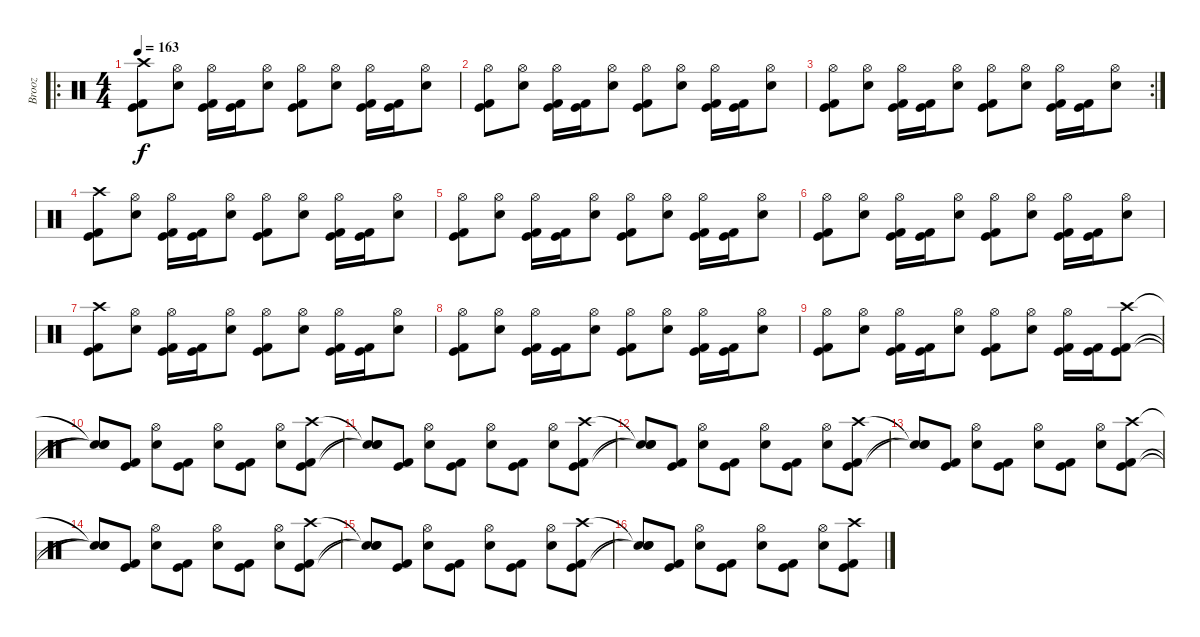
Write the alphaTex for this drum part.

\track ("Brooz" "Brooz") {instrument percussion}
\staff {score}
\articulation defaults
\ro
\ts (4 4)
\tempo 163
\clef neutral
\ks c
("Kick (hit) 2" "Kick (hit)" "Crash high (hit)").8{dy f} ("Snare (hit) 2" "Hi-Hat (open)").8 ("Hi-Hat (open)" "Kick (hit) 2" "Kick (hit)").16 ("Kick (hit) 2" "Kick (hit)").16 ("Hi-Hat (open)" "Snare (hit) 2").8 ("Kick (hit) 2" "Kick (hit)" "Hi-Hat (open)").8 ("Snare (hit) 2" "Hi-Hat (open)").8 ("Hi-Hat (open)" "Kick (hit) 2" "Kick (hit)").16 ("Kick (hit) 2" "Kick (hit)").16 ("Hi-Hat (open)" "Snare (hit) 2").8 |
("Kick (hit) 2" "Kick (hit)" "Hi-Hat (open)").8 ("Snare (hit) 2" "Hi-Hat (open)").8 ("Hi-Hat (open)" "Kick (hit) 2" "Kick (hit)").16 ("Kick (hit) 2" "Kick (hit)").16 ("Hi-Hat (open)" "Snare (hit) 2").8 ("Kick (hit) 2" "Kick (hit)" "Hi-Hat (open)").8 ("Snare (hit) 2" "Hi-Hat (open)").8 ("Hi-Hat (open)" "Kick (hit) 2" "Kick (hit)").16 ("Kick (hit) 2" "Kick (hit)").16 ("Hi-Hat (open)" "Snare (hit) 2").8 |
\rc 2
("Kick (hit) 2" "Kick (hit)" "Hi-Hat (open)").8 ("Snare (hit) 2" "Hi-Hat (open)").8 ("Hi-Hat (open)" "Kick (hit) 2" "Kick (hit)").16 ("Kick (hit) 2" "Kick (hit)").16 ("Hi-Hat (open)" "Snare (hit) 2").8 ("Kick (hit) 2" "Kick (hit)" "Hi-Hat (open)").8 ("Snare (hit) 2" "Hi-Hat (open)").8 ("Hi-Hat (open)" "Kick (hit) 2" "Kick (hit)").16 ("Kick (hit) 2" "Kick (hit)").16 ("Hi-Hat (open)" "Snare (hit) 2").8 |
("Kick (hit) 2" "Kick (hit)" "Crash high (hit)").8 ("Snare (hit) 2" "Hi-Hat (open)").8 ("Hi-Hat (open)" "Kick (hit) 2" "Kick (hit)").16 ("Kick (hit) 2" "Kick (hit)").16 ("Hi-Hat (open)" "Snare (hit) 2").8 ("Kick (hit) 2" "Kick (hit)" "Hi-Hat (open)").8 ("Snare (hit) 2" "Hi-Hat (open)").8 ("Hi-Hat (open)" "Kick (hit) 2" "Kick (hit)").16 ("Kick (hit) 2" "Kick (hit)").16 ("Hi-Hat (open)" "Snare (hit) 2").8 |
("Kick (hit) 2" "Kick (hit)" "Hi-Hat (open)").8 ("Snare (hit) 2" "Hi-Hat (open)").8 ("Hi-Hat (open)" "Kick (hit) 2" "Kick (hit)").16 ("Kick (hit) 2" "Kick (hit)").16 ("Hi-Hat (open)" "Snare (hit) 2").8 ("Kick (hit) 2" "Kick (hit)" "Hi-Hat (open)").8 ("Snare (hit) 2" "Hi-Hat (open)").8 ("Hi-Hat (open)" "Kick (hit) 2" "Kick (hit)").16 ("Kick (hit) 2" "Kick (hit)").16 ("Hi-Hat (open)" "Snare (hit) 2").8 |
("Kick (hit) 2" "Kick (hit)" "Hi-Hat (open)").8 ("Snare (hit) 2" "Hi-Hat (open)").8 ("Hi-Hat (open)" "Kick (hit) 2" "Kick (hit)").16 ("Kick (hit) 2" "Kick (hit)").16 ("Hi-Hat (open)" "Snare (hit) 2").8 ("Kick (hit) 2" "Kick (hit)" "Hi-Hat (open)").8 ("Snare (hit) 2" "Hi-Hat (open)").8 ("Hi-Hat (open)" "Kick (hit) 2" "Kick (hit)").16 ("Kick (hit) 2" "Kick (hit)").16 ("Hi-Hat (open)" "Snare (hit) 2").8 |
("Kick (hit) 2" "Kick (hit)" "Crash high (hit)").8 ("Snare (hit) 2" "Hi-Hat (open)").8 ("Hi-Hat (open)" "Kick (hit) 2" "Kick (hit)").16 ("Kick (hit) 2" "Kick (hit)").16 ("Hi-Hat (open)" "Snare (hit) 2").8 ("Kick (hit) 2" "Kick (hit)" "Hi-Hat (open)").8 ("Snare (hit) 2" "Hi-Hat (open)").8 ("Hi-Hat (open)" "Kick (hit) 2" "Kick (hit)").16 ("Kick (hit) 2" "Kick (hit)").16 ("Hi-Hat (open)" "Snare (hit) 2").8 |
("Kick (hit) 2" "Kick (hit)" "Hi-Hat (open)").8 ("Snare (hit) 2" "Hi-Hat (open)").8 ("Hi-Hat (open)" "Kick (hit) 2" "Kick (hit)").16 ("Kick (hit) 2" "Kick (hit)").16 ("Hi-Hat (open)" "Snare (hit) 2").8 ("Kick (hit) 2" "Kick (hit)" "Hi-Hat (open)").8 ("Snare (hit) 2" "Hi-Hat (open)").8 ("Hi-Hat (open)" "Kick (hit) 2" "Kick (hit)").16 ("Kick (hit) 2" "Kick (hit)").16 ("Hi-Hat (open)" "Snare (hit) 2").8 |
("Kick (hit) 2" "Kick (hit)" "Hi-Hat (open)").8 ("Snare (hit) 2" "Hi-Hat (open)").8 ("Hi-Hat (open)" "Kick (hit) 2" "Kick (hit)").16 ("Kick (hit) 2" "Kick (hit)").16 ("Hi-Hat (open)" "Snare (hit) 2").8 ("Kick (hit) 2" "Kick (hit)" "Hi-Hat (open)").8 ("Snare (hit) 2" "Hi-Hat (open)").8 ("Hi-Hat (open)" "Kick (hit) 2" "Kick (hit)").16 ("Kick (hit) 2" "Kick (hit)").16 ("Kick (hit) 2" "Kick (hit)" "Crash high (hit)").8 |
("Snare (hit)"{t} "Snare (hit)"{t} "Snare (hit)"{t}).8 ("Kick (hit) 2" "Kick (hit)").8 ("Snare (hit) 2" "Hi-Hat (open)").8 ("Kick (hit) 2" "Kick (hit)").8 ("Hi-Hat (open)" "Snare (hit) 2").8 ("Kick (hit) 2" "Kick (hit)").8 ("Snare (hit) 2" "Hi-Hat (open)").8 ("Kick (hit) 2" "Kick (hit)" "Crash high (hit)").8 |
("Snare (hit)"{t} "Snare (hit)"{t} "Snare (hit)"{t}).8 ("Kick (hit) 2" "Kick (hit)").8 ("Snare (hit) 2" "Hi-Hat (open)").8 ("Kick (hit) 2" "Kick (hit)").8 ("Hi-Hat (open)" "Snare (hit) 2").8 ("Kick (hit) 2" "Kick (hit)").8 ("Snare (hit) 2" "Hi-Hat (open)").8 ("Kick (hit) 2" "Kick (hit)" "Crash high (hit)").8 |
("Snare (hit)"{t} "Snare (hit)"{t} "Snare (hit)"{t}).8 ("Kick (hit) 2" "Kick (hit)").8 ("Snare (hit) 2" "Hi-Hat (open)").8 ("Kick (hit) 2" "Kick (hit)").8 ("Hi-Hat (open)" "Snare (hit) 2").8 ("Kick (hit) 2" "Kick (hit)").8 ("Snare (hit) 2" "Hi-Hat (open)").8 ("Kick (hit) 2" "Kick (hit)" "Crash high (hit)").8 |
("Snare (hit)"{t} "Snare (hit)"{t} "Snare (hit)"{t}).8 ("Kick (hit) 2" "Kick (hit)").8 ("Snare (hit) 2" "Hi-Hat (open)").8 ("Kick (hit) 2" "Kick (hit)").8 ("Hi-Hat (open)" "Snare (hit) 2").8 ("Kick (hit) 2" "Kick (hit)").8 ("Snare (hit) 2" "Hi-Hat (open)").8 ("Kick (hit) 2" "Kick (hit)" "Crash high (hit)").8 |
("Snare (hit)"{t} "Snare (hit)"{t} "Snare (hit)"{t}).8 ("Kick (hit) 2" "Kick (hit)").8 ("Snare (hit) 2" "Hi-Hat (open)").8 ("Kick (hit) 2" "Kick (hit)").8 ("Hi-Hat (open)" "Snare (hit) 2").8 ("Kick (hit) 2" "Kick (hit)").8 ("Snare (hit) 2" "Hi-Hat (open)").8 ("Kick (hit) 2" "Kick (hit)" "Crash high (hit)").8 |
("Snare (hit)"{t} "Snare (hit)"{t} "Snare (hit)"{t}).8 ("Kick (hit) 2" "Kick (hit)").8 ("Snare (hit) 2" "Hi-Hat (open)").8 ("Kick (hit) 2" "Kick (hit)").8 ("Hi-Hat (open)" "Snare (hit) 2").8 ("Kick (hit) 2" "Kick (hit)").8 ("Snare (hit) 2" "Hi-Hat (open)").8 ("Kick (hit) 2" "Kick (hit)" "Crash high (hit)").8 |
("Snare (hit)"{t} "Snare (hit)"{t} "Snare (hit)"{t}).8 ("Kick (hit) 2" "Kick (hit)").8 ("Snare (hit) 2" "Hi-Hat (open)").8 ("Kick (hit) 2" "Kick (hit)").8 ("Hi-Hat (open)" "Snare (hit) 2").8 ("Kick (hit) 2" "Kick (hit)").8 ("Snare (hit) 2" "Hi-Hat (open)").8 ("Kick (hit) 2" "Kick (hit)" "Crash high (hit)").8
